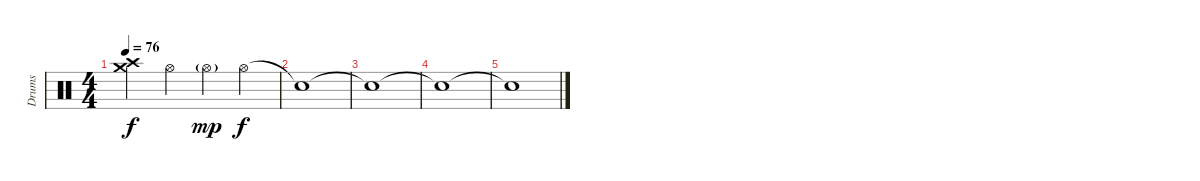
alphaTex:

\track ("Drums" "Drums") {instrument percussion}
\staff {score}
\articulation defaults
\ts (4 4)
\tempo 76
\clef neutral
\ks c
("Crash high (hit)" "Crash medium (hit)").4{dy f} "Hi-Hat (open)".4 "Hi-Hat (open)"{g}.4{dy mp} "Hi-Hat (open)".4{dy f} |
"Snare (hit)"{t}.1 |
"Snare (hit)"{t}.1 |
"Snare (hit)"{t}.1 |
"Snare (hit)"{t}.1
